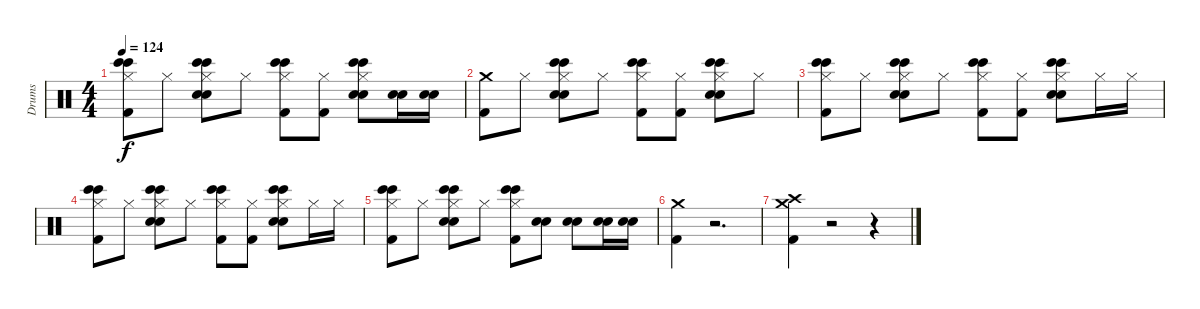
\track ("Drums" "Drums") {instrument percussion}
\staff {score}
\articulation defaults
\ts (4 4)
\tempo 124
\clef neutral
\ks c
("Bongo High (hit)" "Bongo High (hit)" "Hi-Hat (closed)" "Kick (hit) 2").8{dy f} "Hi-Hat (closed)".8 ("Bongo High (hit)" "Electric Snare (hit)" "Snare (hit) 2" "Bongo High (hit)" "Hi-Hat (closed)").8 "Hi-Hat (closed)".8 ("Bongo High (hit)" "Kick (hit) 2" "Bongo High (hit)" "Hi-Hat (closed)").8 ("Kick (hit) 2" "Hi-Hat (closed)").8 ("Bongo High (hit)" "Electric Snare (hit)" "Snare (hit) 2" "Bongo High (hit)" "Hi-Hat (closed)").8 ("Snare (hit) 2" "Electric Snare (hit)").16 ("Snare (hit) 2" "Electric Snare (hit)").16 |
("Kick (hit) 2" "Crash medium (hit)").8 "Hi-Hat (closed)".8 ("Snare (hit) 2" "Bongo High (hit)" "Electric Snare (hit)" "Bongo High (hit)" "Hi-Hat (closed)").8 "Hi-Hat (closed)".8 ("Kick (hit) 2" "Bongo High (hit)" "Bongo High (hit)" "Hi-Hat (closed)").8 ("Kick (hit) 2" "Hi-Hat (closed)").8 ("Electric Snare (hit)" "Bongo High (hit)" "Snare (hit) 2" "Bongo High (hit)" "Hi-Hat (closed)").8 "Hi-Hat (closed)".8 |
("Bongo High (hit)" "Bongo High (hit)" "Hi-Hat (closed)" "Kick (hit) 2").8 "Hi-Hat (closed)".8 ("Bongo High (hit)" "Electric Snare (hit)" "Snare (hit) 2" "Bongo High (hit)" "Hi-Hat (closed)").8 "Hi-Hat (closed)".8 ("Bongo High (hit)" "Kick (hit) 2" "Bongo High (hit)" "Hi-Hat (closed)").8 ("Kick (hit) 2" "Hi-Hat (closed)").8 ("Bongo High (hit)" "Electric Snare (hit)" "Snare (hit) 2" "Bongo High (hit)" "Hi-Hat (closed)").8 "Hi-Hat (closed)".16 "Hi-Hat (closed)".16 |
("Bongo High (hit)" "Hi-Hat (closed)" "Bongo High (hit)" "Kick (hit) 2").8 "Hi-Hat (closed)".8 ("Electric Snare (hit)" "Bongo High (hit)" "Snare (hit) 2" "Bongo High (hit)" "Hi-Hat (closed)").8 "Hi-Hat (closed)".8 ("Bongo High (hit)" "Kick (hit) 2" "Bongo High (hit)" "Hi-Hat (closed)").8 ("Kick (hit) 2" "Hi-Hat (closed)").8 ("Electric Snare (hit)" "Bongo High (hit)" "Snare (hit) 2" "Bongo High (hit)" "Hi-Hat (closed)").8 "Hi-Hat (closed)".16 "Hi-Hat (closed)".16 |
("Bongo High (hit)" "Bongo High (hit)" "Hi-Hat (closed)" "Kick (hit) 2").8 "Hi-Hat (closed)".8 ("Bongo High (hit)" "Electric Snare (hit)" "Snare (hit) 2" "Bongo High (hit)" "Hi-Hat (closed)").8 "Hi-Hat (closed)".8 ("Bongo High (hit)" "Kick (hit) 2" "Bongo High (hit)" "Hi-Hat (closed)").8 ("Snare (hit) 2" "Electric Snare (hit)").8 ("Electric Snare (hit)" "Snare (hit) 2").8 ("Snare (hit) 2" "Electric Snare (hit)").16 ("Snare (hit) 2" "Electric Snare (hit)").16 |
("Crash medium (hit)" "Kick (hit) 2").4 r.2{d} |
("Crash high (hit)" "Crash medium (hit)" "Kick (hit) 2").4 r.2 r.4
